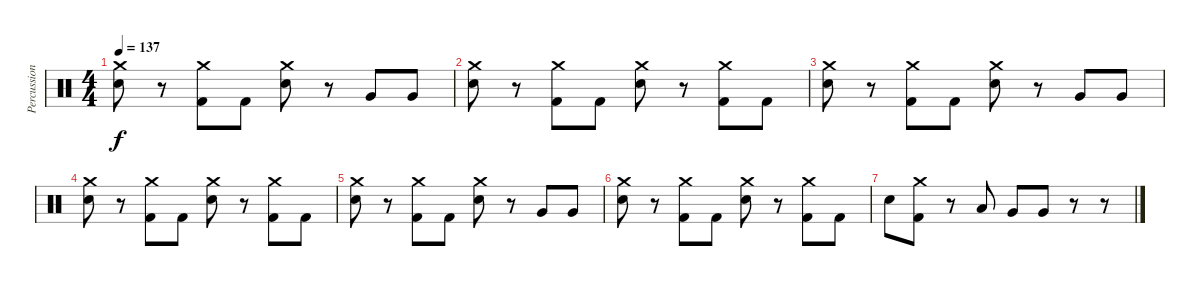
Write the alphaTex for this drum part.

\track ("Percussion" "Percussion") {instrument percussion}
\staff {score}
\articulation defaults
\ts (4 4)
\tempo 137
\clef neutral
\ks c
("Crash medium (hit)" "Electric Snare (hit)").8{dy f} r.8 ("Crash medium (hit)" "Kick (hit) 2").8 "Kick (hit) 2".8 ("Crash medium (hit)" "Electric Snare (hit)").8 r.8 "Very Low Tom (hit)".8 "Very Low Tom (hit)".8 |
("Crash medium (hit)" "Electric Snare (hit)").8 r.8 ("Crash medium (hit)" "Kick (hit) 2").8 "Kick (hit) 2".8 ("Crash medium (hit)" "Electric Snare (hit)").8 r.8 ("Crash medium (hit)" "Kick (hit) 2").8 "Kick (hit) 2".8 |
("Crash medium (hit)" "Electric Snare (hit)").8 r.8 ("Crash medium (hit)" "Kick (hit) 2").8 "Kick (hit) 2".8 ("Crash medium (hit)" "Electric Snare (hit)").8 r.8 "Very Low Tom (hit)".8 "Very Low Tom (hit)".8 |
("Crash medium (hit)" "Electric Snare (hit)").8 r.8 ("Crash medium (hit)" "Kick (hit) 2").8 "Kick (hit) 2".8 ("Crash medium (hit)" "Electric Snare (hit)").8 r.8 ("Crash medium (hit)" "Kick (hit) 2").8 "Kick (hit) 2".8 |
("Crash medium (hit)" "Electric Snare (hit)").8 r.8 ("Crash medium (hit)" "Kick (hit) 2").8 "Kick (hit) 2".8 ("Crash medium (hit)" "Electric Snare (hit)").8 r.8 "Very Low Tom (hit)".8 "Very Low Tom (hit)".8 |
("Crash medium (hit)" "Electric Snare (hit)").8 r.8 ("Crash medium (hit)" "Kick (hit) 2").8 "Kick (hit) 2".8 ("Crash medium (hit)" "Electric Snare (hit)").8 r.8 ("Crash medium (hit)" "Kick (hit) 2").8 "Kick (hit) 2".8 |
"Electric Snare (hit)".8 ("Crash medium (hit)" "Kick (hit) 2").8 r.8 "Low Tom (hit)".8 "Very Low Tom (hit)".8 "Very Low Tom (hit)".8 r.8 r.8
